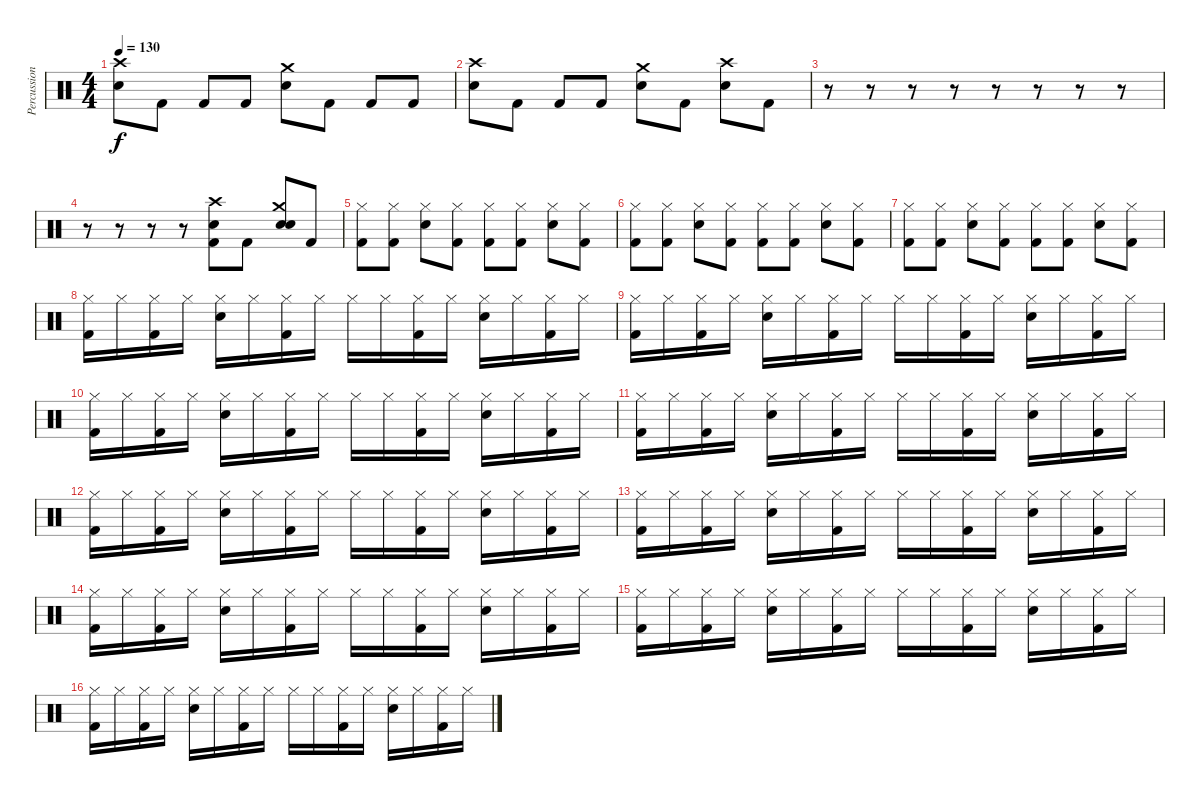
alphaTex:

\track ("Percussions" "Percussion") {instrument percussion}
\staff {score}
\articulation defaults
\ts (4 4)
\tempo 130
\clef neutral
\ks c
("Crash high (hit)" "Snare (hit) 2").8{dy f} "Kick (hit) 2".8 "Kick (hit) 2".8 "Kick (hit) 2".8 ("Crash medium (hit)" "Snare (hit) 2").8 "Kick (hit) 2".8 "Kick (hit) 2".8 "Kick (hit) 2".8 |
("Crash high (hit)" "Snare (hit) 2").8 "Kick (hit) 2".8 "Kick (hit) 2".8 "Kick (hit) 2".8 ("Crash medium (hit)" "Snare (hit) 2").8 "Kick (hit) 2".8 ("Crash high (hit)" "Snare (hit) 2").8 "Kick (hit) 2".8 |
r.8 r.8 r.8 r.8 r.8 r.8 r.8 r.8 |
r.8 r.8 r.8 r.8 ("Metronome (bell)" "Crash high (hit)" "Kick (hit) 2").8 "Kick (hit) 2".8 ("Metronome (bell)" "Crash medium (hit)" "Snare (hit) 2").8 "Kick (hit) 2".8 |
("Hi-Hat (closed)" "Kick (hit) 2").8 ("Hi-Hat (closed)" "Kick (hit) 2").8 ("Hi-Hat (closed)" "Snare (hit) 2").8 ("Hi-Hat (closed)" "Kick (hit) 2").8 ("Hi-Hat (closed)" "Kick (hit) 2").8 ("Hi-Hat (closed)" "Kick (hit) 2").8 ("Hi-Hat (closed)" "Snare (hit) 2").8 ("Hi-Hat (closed)" "Kick (hit) 2").8 |
("Hi-Hat (closed)" "Kick (hit) 2").8 ("Hi-Hat (closed)" "Kick (hit) 2").8 ("Hi-Hat (closed)" "Snare (hit) 2").8 ("Hi-Hat (closed)" "Kick (hit) 2").8 ("Hi-Hat (closed)" "Kick (hit) 2").8 ("Hi-Hat (closed)" "Kick (hit) 2").8 ("Hi-Hat (closed)" "Snare (hit) 2").8 ("Hi-Hat (closed)" "Kick (hit) 2").8 |
("Hi-Hat (closed)" "Kick (hit) 2").8 ("Hi-Hat (closed)" "Kick (hit) 2").8 ("Hi-Hat (closed)" "Snare (hit) 2").8 ("Hi-Hat (closed)" "Kick (hit) 2").8 ("Hi-Hat (closed)" "Kick (hit) 2").8 ("Hi-Hat (closed)" "Kick (hit) 2").8 ("Hi-Hat (closed)" "Snare (hit) 2").8 ("Hi-Hat (closed)" "Kick (hit) 2").8 |
("Hi-Hat (closed)" "Kick (hit) 2").16 "Hi-Hat (closed)".16 ("Hi-Hat (closed)" "Kick (hit) 2").16 "Hi-Hat (closed)".16 ("Hi-Hat (closed)" "Snare (hit) 2").16 "Hi-Hat (closed)".16 ("Hi-Hat (closed)" "Kick (hit) 2").16 "Hi-Hat (closed)".16 "Hi-Hat (closed)".16 "Hi-Hat (closed)".16 ("Hi-Hat (closed)" "Kick (hit) 2").16 "Hi-Hat (closed)".16 ("Hi-Hat (closed)" "Snare (hit) 2").16 "Hi-Hat (closed)".16 ("Hi-Hat (closed)" "Kick (hit) 2").16 "Hi-Hat (closed)".16 |
("Hi-Hat (closed)" "Kick (hit) 2").16 "Hi-Hat (closed)".16 ("Hi-Hat (closed)" "Kick (hit) 2").16 "Hi-Hat (closed)".16 ("Hi-Hat (closed)" "Snare (hit) 2").16 "Hi-Hat (closed)".16 ("Hi-Hat (closed)" "Kick (hit) 2").16 "Hi-Hat (closed)".16 "Hi-Hat (closed)".16 "Hi-Hat (closed)".16 ("Hi-Hat (closed)" "Kick (hit) 2").16 "Hi-Hat (closed)".16 ("Hi-Hat (closed)" "Snare (hit) 2").16 "Hi-Hat (closed)".16 ("Hi-Hat (closed)" "Kick (hit) 2").16 "Hi-Hat (closed)".16 |
("Hi-Hat (closed)" "Kick (hit) 2").16 "Hi-Hat (closed)".16 ("Hi-Hat (closed)" "Kick (hit) 2").16 "Hi-Hat (closed)".16 ("Hi-Hat (closed)" "Snare (hit) 2").16 "Hi-Hat (closed)".16 ("Hi-Hat (closed)" "Kick (hit) 2").16 "Hi-Hat (closed)".16 "Hi-Hat (closed)".16 "Hi-Hat (closed)".16 ("Hi-Hat (closed)" "Kick (hit) 2").16 "Hi-Hat (closed)".16 ("Hi-Hat (closed)" "Snare (hit) 2").16 "Hi-Hat (closed)".16 ("Hi-Hat (closed)" "Kick (hit) 2").16 "Hi-Hat (closed)".16 |
("Hi-Hat (closed)" "Kick (hit) 2").16 "Hi-Hat (closed)".16 ("Hi-Hat (closed)" "Kick (hit) 2").16 "Hi-Hat (closed)".16 ("Hi-Hat (closed)" "Snare (hit) 2").16 "Hi-Hat (closed)".16 ("Hi-Hat (closed)" "Kick (hit) 2").16 "Hi-Hat (closed)".16 "Hi-Hat (closed)".16 "Hi-Hat (closed)".16 ("Hi-Hat (closed)" "Kick (hit) 2").16 "Hi-Hat (closed)".16 ("Hi-Hat (closed)" "Snare (hit) 2").16 "Hi-Hat (closed)".16 ("Hi-Hat (closed)" "Kick (hit) 2").16 "Hi-Hat (closed)".16 |
("Hi-Hat (closed)" "Kick (hit) 2").16 "Hi-Hat (closed)".16 ("Hi-Hat (closed)" "Kick (hit) 2").16 "Hi-Hat (closed)".16 ("Hi-Hat (closed)" "Snare (hit) 2").16 "Hi-Hat (closed)".16 ("Hi-Hat (closed)" "Kick (hit) 2").16 "Hi-Hat (closed)".16 "Hi-Hat (closed)".16 "Hi-Hat (closed)".16 ("Hi-Hat (closed)" "Kick (hit) 2").16 "Hi-Hat (closed)".16 ("Hi-Hat (closed)" "Snare (hit) 2").16 "Hi-Hat (closed)".16 ("Hi-Hat (closed)" "Kick (hit) 2").16 "Hi-Hat (closed)".16 |
("Hi-Hat (closed)" "Kick (hit) 2").16 "Hi-Hat (closed)".16 ("Hi-Hat (closed)" "Kick (hit) 2").16 "Hi-Hat (closed)".16 ("Hi-Hat (closed)" "Snare (hit) 2").16 "Hi-Hat (closed)".16 ("Hi-Hat (closed)" "Kick (hit) 2").16 "Hi-Hat (closed)".16 "Hi-Hat (closed)".16 "Hi-Hat (closed)".16 ("Hi-Hat (closed)" "Kick (hit) 2").16 "Hi-Hat (closed)".16 ("Hi-Hat (closed)" "Snare (hit) 2").16 "Hi-Hat (closed)".16 ("Hi-Hat (closed)" "Kick (hit) 2").16 "Hi-Hat (closed)".16 |
("Hi-Hat (closed)" "Kick (hit) 2").16 "Hi-Hat (closed)".16 ("Hi-Hat (closed)" "Kick (hit) 2").16 "Hi-Hat (closed)".16 ("Hi-Hat (closed)" "Snare (hit) 2").16 "Hi-Hat (closed)".16 ("Hi-Hat (closed)" "Kick (hit) 2").16 "Hi-Hat (closed)".16 "Hi-Hat (closed)".16 "Hi-Hat (closed)".16 ("Hi-Hat (closed)" "Kick (hit) 2").16 "Hi-Hat (closed)".16 ("Hi-Hat (closed)" "Snare (hit) 2").16 "Hi-Hat (closed)".16 ("Hi-Hat (closed)" "Kick (hit) 2").16 "Hi-Hat (closed)".16 |
("Hi-Hat (closed)" "Kick (hit) 2").16 "Hi-Hat (closed)".16 ("Hi-Hat (closed)" "Kick (hit) 2").16 "Hi-Hat (closed)".16 ("Hi-Hat (closed)" "Snare (hit) 2").16 "Hi-Hat (closed)".16 ("Hi-Hat (closed)" "Kick (hit) 2").16 "Hi-Hat (closed)".16 "Hi-Hat (closed)".16 "Hi-Hat (closed)".16 ("Hi-Hat (closed)" "Kick (hit) 2").16 "Hi-Hat (closed)".16 ("Hi-Hat (closed)" "Snare (hit) 2").16 "Hi-Hat (closed)".16 ("Hi-Hat (closed)" "Kick (hit) 2").16 "Hi-Hat (closed)".16 |
("Hi-Hat (closed)" "Kick (hit) 2").16 "Hi-Hat (closed)".16 ("Hi-Hat (closed)" "Kick (hit) 2").16 "Hi-Hat (closed)".16 ("Hi-Hat (closed)" "Snare (hit) 2").16 "Hi-Hat (closed)".16 ("Hi-Hat (closed)" "Kick (hit) 2").16 "Hi-Hat (closed)".16 "Hi-Hat (closed)".16 "Hi-Hat (closed)".16 ("Hi-Hat (closed)" "Kick (hit) 2").16 "Hi-Hat (closed)".16 ("Hi-Hat (closed)" "Snare (hit) 2").16 "Hi-Hat (closed)".16 ("Hi-Hat (closed)" "Kick (hit) 2").16 "Hi-Hat (closed)".16
